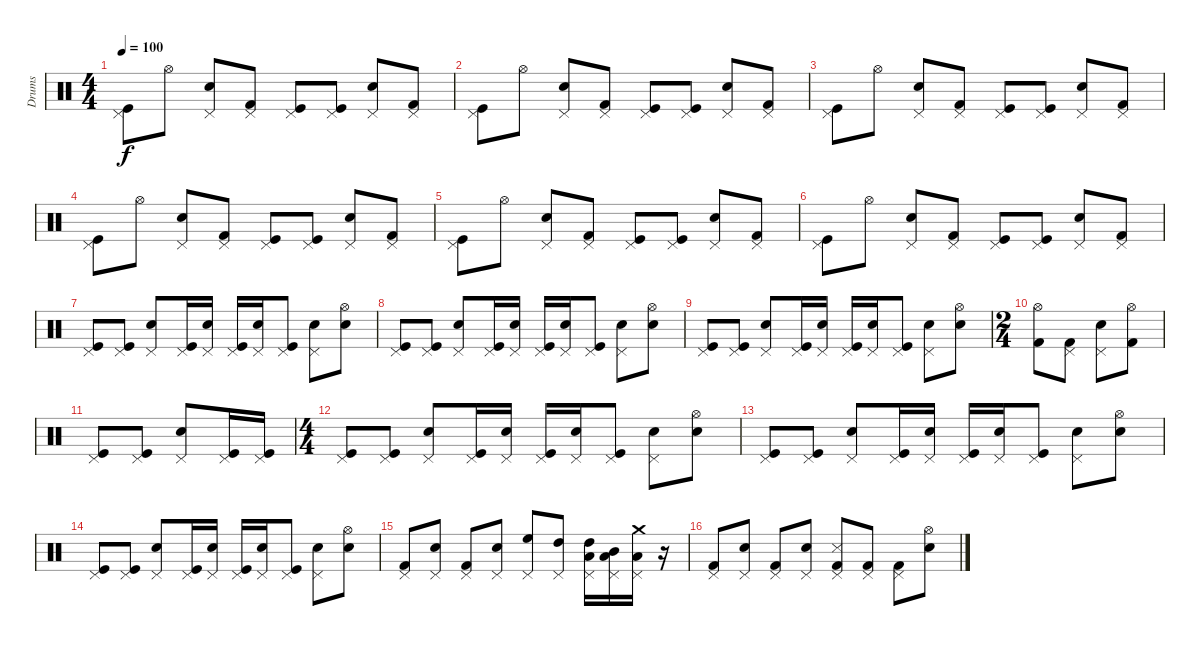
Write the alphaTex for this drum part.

\track ("Drums" "Drums") {instrument percussion}
\staff {score}
\articulation defaults
\ts (4 4)
\tempo 100
\clef neutral
\ks c
("Pedal Hi-Hat (hit)" "Kick (hit)").8{dy f} "Hi-Hat (open)".8 ("Pedal Hi-Hat (hit)" "Snare (hit) 2").8 ("Pedal Hi-Hat (hit)" "Kick (hit) 2").8 ("Pedal Hi-Hat (hit)" "Kick (hit)").8 ("Pedal Hi-Hat (hit)" "Kick (hit)").8 ("Pedal Hi-Hat (hit)" "Snare (hit) 2").8 ("Pedal Hi-Hat (hit)" "Kick (hit) 2").8 |
("Pedal Hi-Hat (hit)" "Kick (hit)").8 "Hi-Hat (open)".8 ("Pedal Hi-Hat (hit)" "Snare (hit) 2").8 ("Pedal Hi-Hat (hit)" "Kick (hit) 2").8 ("Pedal Hi-Hat (hit)" "Kick (hit)").8 ("Pedal Hi-Hat (hit)" "Kick (hit)").8 ("Pedal Hi-Hat (hit)" "Snare (hit) 2").8 ("Pedal Hi-Hat (hit)" "Kick (hit) 2").8 |
("Pedal Hi-Hat (hit)" "Kick (hit)").8 "Hi-Hat (open)".8 ("Pedal Hi-Hat (hit)" "Snare (hit) 2").8 ("Pedal Hi-Hat (hit)" "Kick (hit) 2").8 ("Pedal Hi-Hat (hit)" "Kick (hit)").8 ("Pedal Hi-Hat (hit)" "Kick (hit)").8 ("Pedal Hi-Hat (hit)" "Snare (hit) 2").8 ("Pedal Hi-Hat (hit)" "Kick (hit) 2").8 |
("Pedal Hi-Hat (hit)" "Kick (hit)").8 "Hi-Hat (open)".8 ("Pedal Hi-Hat (hit)" "Snare (hit) 2").8 ("Pedal Hi-Hat (hit)" "Kick (hit) 2").8 ("Pedal Hi-Hat (hit)" "Kick (hit)").8 ("Pedal Hi-Hat (hit)" "Kick (hit)").8 ("Pedal Hi-Hat (hit)" "Snare (hit) 2").8 ("Pedal Hi-Hat (hit)" "Kick (hit) 2").8 |
("Pedal Hi-Hat (hit)" "Kick (hit)").8 "Hi-Hat (open)".8 ("Pedal Hi-Hat (hit)" "Snare (hit) 2").8 ("Pedal Hi-Hat (hit)" "Kick (hit) 2").8 ("Pedal Hi-Hat (hit)" "Kick (hit)").8 ("Pedal Hi-Hat (hit)" "Kick (hit)").8 ("Pedal Hi-Hat (hit)" "Snare (hit) 2").8 ("Pedal Hi-Hat (hit)" "Kick (hit) 2").8 |
("Pedal Hi-Hat (hit)" "Kick (hit)").8 "Hi-Hat (open)".8 ("Pedal Hi-Hat (hit)" "Snare (hit) 2").8 ("Pedal Hi-Hat (hit)" "Kick (hit) 2").8 ("Pedal Hi-Hat (hit)" "Kick (hit)").8 ("Pedal Hi-Hat (hit)" "Kick (hit)").8 ("Pedal Hi-Hat (hit)" "Snare (hit) 2").8 ("Pedal Hi-Hat (hit)" "Kick (hit) 2").8 |
("Pedal Hi-Hat (hit)" "Kick (hit)").8 ("Pedal Hi-Hat (hit)" "Kick (hit)").8 ("Pedal Hi-Hat (hit)" "Snare (hit) 2").8 ("Pedal Hi-Hat (hit)" "Kick (hit)").16 ("Pedal Hi-Hat (hit)" "Snare (hit) 2").16 ("Pedal Hi-Hat (hit)" "Kick (hit)").16 ("Pedal Hi-Hat (hit)" "Snare (hit) 2").16 ("Pedal Hi-Hat (hit)" "Kick (hit)").8 ("Pedal Hi-Hat (hit)" "Snare (hit) 2").8 ("Hi-Hat (open)" "Snare (hit) 2").8 |
("Pedal Hi-Hat (hit)" "Kick (hit)").8 ("Pedal Hi-Hat (hit)" "Kick (hit)").8 ("Pedal Hi-Hat (hit)" "Snare (hit) 2").8 ("Pedal Hi-Hat (hit)" "Kick (hit)").16 ("Pedal Hi-Hat (hit)" "Snare (hit) 2").16 ("Pedal Hi-Hat (hit)" "Kick (hit)").16 ("Pedal Hi-Hat (hit)" "Snare (hit) 2").16 ("Pedal Hi-Hat (hit)" "Kick (hit)").8 ("Pedal Hi-Hat (hit)" "Snare (hit) 2").8 ("Hi-Hat (open)" "Snare (hit) 2").8 |
("Pedal Hi-Hat (hit)" "Kick (hit)").8 ("Pedal Hi-Hat (hit)" "Kick (hit)").8 ("Pedal Hi-Hat (hit)" "Snare (hit) 2").8 ("Pedal Hi-Hat (hit)" "Kick (hit)").16 ("Pedal Hi-Hat (hit)" "Snare (hit) 2").16 ("Pedal Hi-Hat (hit)" "Kick (hit)").16 ("Pedal Hi-Hat (hit)" "Snare (hit) 2").16 ("Pedal Hi-Hat (hit)" "Kick (hit)").8 ("Pedal Hi-Hat (hit)" "Snare (hit) 2").8 ("Hi-Hat (open)" "Snare (hit) 2").8 |
\ts (2 4)
("Hi-Hat (open)" "Kick (hit) 2").8 ("Pedal Hi-Hat (hit)" "Kick (hit) 2").8 ("Pedal Hi-Hat (hit)" "Snare (hit) 2").8 ("Hi-Hat (open)" "Kick (hit) 2").8 |
("Pedal Hi-Hat (hit)" "Kick (hit)").8 ("Pedal Hi-Hat (hit)" "Kick (hit)").8 ("Pedal Hi-Hat (hit)" "Snare (hit) 2").8 ("Pedal Hi-Hat (hit)" "Kick (hit)").16 ("Pedal Hi-Hat (hit)" "Kick (hit)").16 |
\ts (4 4)
("Pedal Hi-Hat (hit)" "Kick (hit)").8 ("Pedal Hi-Hat (hit)" "Kick (hit)").8 ("Pedal Hi-Hat (hit)" "Snare (hit) 2").8 ("Pedal Hi-Hat (hit)" "Kick (hit)").16 ("Pedal Hi-Hat (hit)" "Snare (hit) 2").16 ("Pedal Hi-Hat (hit)" "Kick (hit)").16 ("Pedal Hi-Hat (hit)" "Snare (hit) 2").16 ("Pedal Hi-Hat (hit)" "Kick (hit)").8 ("Pedal Hi-Hat (hit)" "Snare (hit) 2").8 ("Hi-Hat (open)" "Snare (hit) 2").8 |
("Pedal Hi-Hat (hit)" "Kick (hit)").8 ("Pedal Hi-Hat (hit)" "Kick (hit)").8 ("Pedal Hi-Hat (hit)" "Snare (hit) 2").8 ("Pedal Hi-Hat (hit)" "Kick (hit)").16 ("Pedal Hi-Hat (hit)" "Snare (hit) 2").16 ("Pedal Hi-Hat (hit)" "Kick (hit)").16 ("Pedal Hi-Hat (hit)" "Snare (hit) 2").16 ("Pedal Hi-Hat (hit)" "Kick (hit)").8 ("Pedal Hi-Hat (hit)" "Snare (hit) 2").8 ("Hi-Hat (open)" "Snare (hit) 2").8 |
("Pedal Hi-Hat (hit)" "Kick (hit)").8 ("Pedal Hi-Hat (hit)" "Kick (hit)").8 ("Pedal Hi-Hat (hit)" "Snare (hit) 2").8 ("Pedal Hi-Hat (hit)" "Kick (hit)").16 ("Pedal Hi-Hat (hit)" "Snare (hit) 2").16 ("Pedal Hi-Hat (hit)" "Kick (hit)").16 ("Pedal Hi-Hat (hit)" "Snare (hit) 2").16 ("Pedal Hi-Hat (hit)" "Kick (hit)").8 ("Pedal Hi-Hat (hit)" "Snare (hit) 2").8 ("Hi-Hat (open)" "Snare (hit) 2").8 |
("Pedal Hi-Hat (hit)" "Kick (hit) 2").8 ("Pedal Hi-Hat (hit)" "Snare (hit) 2").8 ("Pedal Hi-Hat (hit)" "Kick (hit) 2").8 ("Pedal Hi-Hat (hit)" "Snare (hit) 2").8 ("Pedal Hi-Hat (hit)" "High Floor Tom (hit)").8 ("Pedal Hi-Hat (hit)" "High Tom (hit)").8 ("Low Tom (hit)" "High Tom (hit)" "Pedal Hi-Hat (hit)").16 ("Low Tom (hit)" "Mid Tom (hit)" "Pedal Hi-Hat (hit)").16 ("Crash medium (hit)" "Low Tom (hit)" "Pedal Hi-Hat (hit)").16 r.16 |
("Pedal Hi-Hat (hit)" "Kick (hit) 2").8 ("Pedal Hi-Hat (hit)" "Snare (hit) 2").8 ("Pedal Hi-Hat (hit)" "Kick (hit) 2").8 ("Pedal Hi-Hat (hit)" "Snare (hit) 2").8 ("Pedal Hi-Hat (hit)" "Kick (hit) 2" "Snare (side stick) 3").8 ("Pedal Hi-Hat (hit)" "Kick (hit) 2").8 ("Pedal Hi-Hat (hit)" "Kick (hit) 2").8 ("Hi-Hat (open)" "Snare (hit) 2").8
